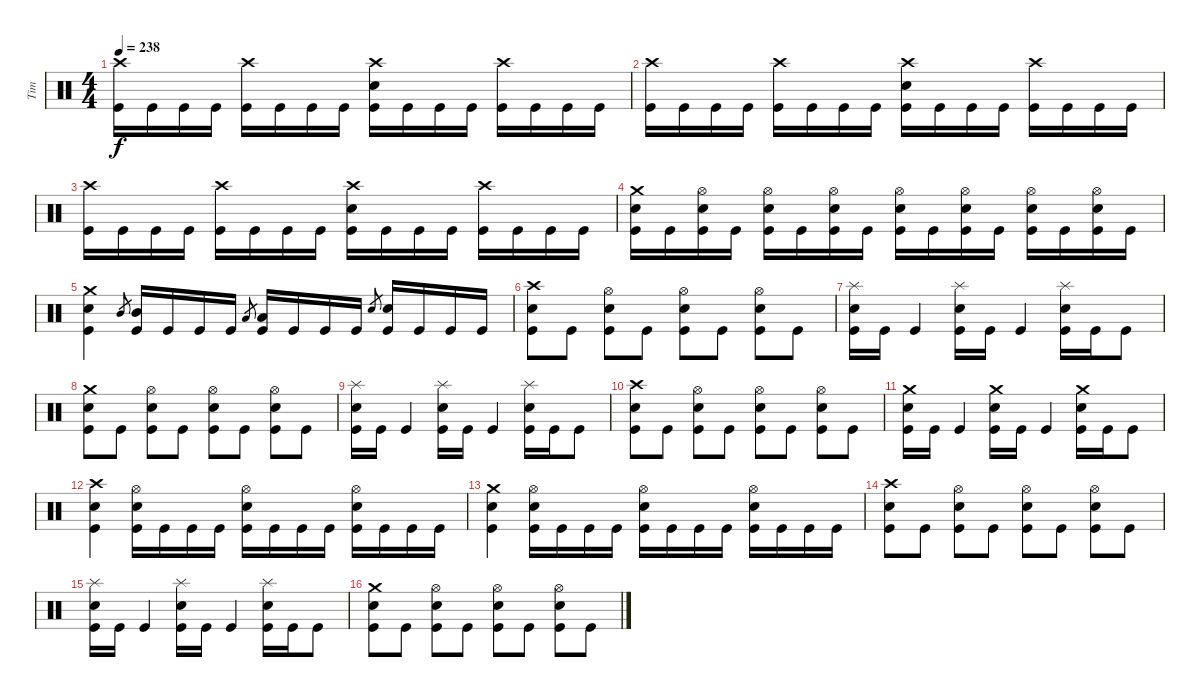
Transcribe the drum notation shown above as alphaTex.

\track ("Tim" "Tim") {instrument percussion}
\staff {score}
\articulation defaults
\ts (4 4)
\tempo 238
\clef neutral
\ks c
("Crash high (hit)" "Kick (hit)").16{dy f} "Kick (hit)".16 "Kick (hit)".16 "Kick (hit)".16 ("Crash high (hit)" "Kick (hit)").16 "Kick (hit)".16 "Kick (hit)".16 "Kick (hit)".16 ("Crash high (hit)" "Electric Snare (hit)" "Kick (hit)").16 "Kick (hit)".16 "Kick (hit)".16 "Kick (hit)".16 ("Crash high (hit)" "Kick (hit)").16 "Kick (hit)".16 "Kick (hit)".16 "Kick (hit)".16 |
("Crash high (hit)" "Kick (hit)").16 "Kick (hit)".16 "Kick (hit)".16 "Kick (hit)".16 ("Crash high (hit)" "Kick (hit)").16 "Kick (hit)".16 "Kick (hit)".16 "Kick (hit)".16 ("Crash high (hit)" "Electric Snare (hit)" "Kick (hit)").16 "Kick (hit)".16 "Kick (hit)".16 "Kick (hit)".16 ("Crash high (hit)" "Kick (hit)").16 "Kick (hit)".16 "Kick (hit)".16 "Kick (hit)".16 |
("Crash high (hit)" "Kick (hit)").16 "Kick (hit)".16 "Kick (hit)".16 "Kick (hit)".16 ("Crash high (hit)" "Kick (hit)").16 "Kick (hit)".16 "Kick (hit)".16 "Kick (hit)".16 ("Crash high (hit)" "Electric Snare (hit)" "Kick (hit)").16 "Kick (hit)".16 "Kick (hit)".16 "Kick (hit)".16 ("Crash high (hit)" "Kick (hit)").16 "Kick (hit)".16 "Kick (hit)".16 "Kick (hit)".16 |
("Crash medium (hit)" "Electric Snare (hit)" "Kick (hit)").16 "Kick (hit)".16 ("Hi-Hat (open)" "Electric Snare (hit)" "Kick (hit)").16 "Kick (hit)".16 ("Hi-Hat (open)" "Electric Snare (hit)" "Kick (hit)").16 "Kick (hit)".16 ("Hi-Hat (open)" "Electric Snare (hit)" "Kick (hit)").16 "Kick (hit)".16 ("Hi-Hat (open)" "Electric Snare (hit)" "Kick (hit)").16 "Kick (hit)".16 ("Hi-Hat (open)" "Electric Snare (hit)" "Kick (hit)").16 "Kick (hit)".16 ("Hi-Hat (open)" "Electric Snare (hit)" "Kick (hit)").16 "Kick (hit)".16 ("Hi-Hat (open)" "Electric Snare (hit)" "Kick (hit)").16 "Kick (hit)".16 |
("Crash medium (hit)" "Electric Snare (hit)" "Kick (hit)").4 "Mid Tom (hit)".8{gr} ("Mid Tom (hit)" "Kick (hit)").16 "Kick (hit)".16 "Kick (hit)".16 "Kick (hit)".16 "Low Tom (hit)".8{gr} ("Low Tom (hit)" "Kick (hit)").16 "Kick (hit)".16 "Kick (hit)".16 "Kick (hit)".16 "Electric Snare (hit)".8{gr} ("Electric Snare (hit)" "Kick (hit)").16 "Kick (hit)".16 "Kick (hit)".16 "Kick (hit)".16 |
("Crash high (hit)" "Electric Snare (hit)" "Kick (hit)").8 "Kick (hit)".8 ("Hi-Hat (open)" "Electric Snare (hit)" "Kick (hit)").8 "Kick (hit)".8 ("Hi-Hat (open)" "Electric Snare (hit)" "Kick (hit)").8 "Kick (hit)".8 ("Hi-Hat (open)" "Electric Snare (hit)" "Kick (hit)").8 "Kick (hit)".8 |
("Splash (hit)" "Electric Snare (hit)" "Kick (hit)").16 "Kick (hit)".16 "Kick (hit)".4 ("Splash (hit)" "Electric Snare (hit)" "Kick (hit)").16 "Kick (hit)".16 "Kick (hit)".4 ("Splash (hit)" "Electric Snare (hit)" "Kick (hit)").16 "Kick (hit)".16 "Kick (hit)".8 |
("Crash medium (hit)" "Electric Snare (hit)" "Kick (hit)").8 "Kick (hit)".8 ("Hi-Hat (open)" "Electric Snare (hit)" "Kick (hit)").8 "Kick (hit)".8 ("Hi-Hat (open)" "Electric Snare (hit)" "Kick (hit)").8 "Kick (hit)".8 ("Hi-Hat (open)" "Electric Snare (hit)" "Kick (hit)").8 "Kick (hit)".8 |
("Splash (hit)" "Electric Snare (hit)" "Kick (hit)").16 "Kick (hit)".16 "Kick (hit)".4 ("Splash (hit)" "Electric Snare (hit)" "Kick (hit)").16 "Kick (hit)".16 "Kick (hit)".4 ("Splash (hit)" "Electric Snare (hit)" "Kick (hit)").16 "Kick (hit)".16 "Kick (hit)".8 |
("Crash high (hit)" "Electric Snare (hit)" "Kick (hit)").8 "Kick (hit)".8 ("Hi-Hat (open)" "Electric Snare (hit)" "Kick (hit)").8 "Kick (hit)".8 ("Hi-Hat (open)" "Electric Snare (hit)" "Kick (hit)").8 "Kick (hit)".8 ("Hi-Hat (open)" "Electric Snare (hit)" "Kick (hit)").8 "Kick (hit)".8 |
("Crash medium (hit)" "Electric Snare (hit)" "Kick (hit)").16 "Kick (hit)".16 "Kick (hit)".4 ("Crash medium (hit)" "Electric Snare (hit)" "Kick (hit)").16 "Kick (hit)".16 "Kick (hit)".4 ("Crash medium (hit)" "Electric Snare (hit)" "Kick (hit)").16 "Kick (hit)".16 "Kick (hit)".8 |
("Crash high (hit)" "Electric Snare (hit)" "Kick (hit)").4 ("Hi-Hat (open)" "Electric Snare (hit)" "Kick (hit)").16 "Kick (hit)".16 "Kick (hit)".16 "Kick (hit)".16 ("Hi-Hat (open)" "Electric Snare (hit)" "Kick (hit)").16 "Kick (hit)".16 "Kick (hit)".16 "Kick (hit)".16 ("Hi-Hat (open)" "Electric Snare (hit)" "Kick (hit)").16 "Kick (hit)".16 "Kick (hit)".16 "Kick (hit)".16 |
("Crash medium (hit)" "Electric Snare (hit)" "Kick (hit)").4 ("Hi-Hat (open)" "Electric Snare (hit)" "Kick (hit)").16 "Kick (hit)".16 "Kick (hit)".16 "Kick (hit)".16 ("Hi-Hat (open)" "Electric Snare (hit)" "Kick (hit)").16 "Kick (hit)".16 "Kick (hit)".16 "Kick (hit)".16 ("Hi-Hat (open)" "Electric Snare (hit)" "Kick (hit)").16 "Kick (hit)".16 "Kick (hit)".16 "Kick (hit)".16 |
("Crash high (hit)" "Electric Snare (hit)" "Kick (hit)").8 "Kick (hit)".8 ("Hi-Hat (open)" "Electric Snare (hit)" "Kick (hit)").8 "Kick (hit)".8 ("Hi-Hat (open)" "Electric Snare (hit)" "Kick (hit)").8 "Kick (hit)".8 ("Hi-Hat (open)" "Electric Snare (hit)" "Kick (hit)").8 "Kick (hit)".8 |
("Splash (hit)" "Electric Snare (hit)" "Kick (hit)").16 "Kick (hit)".16 "Kick (hit)".4 ("Splash (hit)" "Electric Snare (hit)" "Kick (hit)").16 "Kick (hit)".16 "Kick (hit)".4 ("Splash (hit)" "Electric Snare (hit)" "Kick (hit)").16 "Kick (hit)".16 "Kick (hit)".8 |
("Crash medium (hit)" "Electric Snare (hit)" "Kick (hit)").8 "Kick (hit)".8 ("Hi-Hat (open)" "Electric Snare (hit)" "Kick (hit)").8 "Kick (hit)".8 ("Hi-Hat (open)" "Electric Snare (hit)" "Kick (hit)").8 "Kick (hit)".8 ("Hi-Hat (open)" "Electric Snare (hit)" "Kick (hit)").8 "Kick (hit)".8
